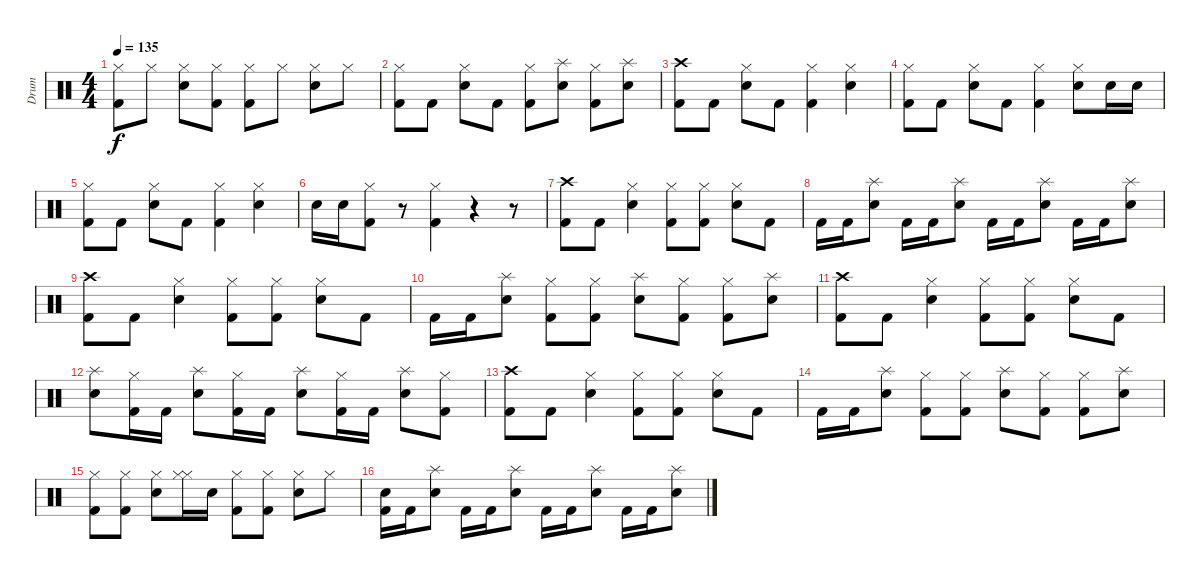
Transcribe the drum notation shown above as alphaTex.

\track ("Drum" "Drum") {instrument percussion}
\staff {score}
\articulation defaults
\ts (4 4)
\tempo 135
\clef neutral
\ks c
("Hi-Hat (closed)" "Kick (hit) 2").8{dy f} "Hi-Hat (closed)".8 ("Electric Snare (hit)" "Hi-Hat (closed)").8 ("Kick (hit) 2" "Hi-Hat (closed)").8 ("Kick (hit) 2" "Hi-Hat (closed)").8 "Hi-Hat (closed)".8 ("Electric Snare (hit)" "Hi-Hat (closed)").8 "Hi-Hat (closed)".8 |
("Hi-Hat (closed)" "Kick (hit) 2").8 "Kick (hit) 2".8 ("Hi-Hat (closed)" "Electric Snare (hit)").8 "Kick (hit) 2".8 ("Hi-Hat (closed)" "Kick (hit) 2").8 ("Splash (hit)" "Electric Snare (hit)").8 ("Hi-Hat (closed)" "Kick (hit) 2").8 ("Electric Snare (hit)" "Splash (hit)").8 |
("Crash high (hit)" "Kick (hit) 2").8 "Kick (hit) 2".8 ("Hi-Hat (closed)" "Electric Snare (hit)").8 "Kick (hit) 2".8 ("Hi-Hat (closed)" "Kick (hit) 2").4 ("Hi-Hat (closed)" "Electric Snare (hit)").4 |
("Hi-Hat (closed)" "Kick (hit) 2").8 "Kick (hit) 2".8 ("Hi-Hat (closed)" "Electric Snare (hit)").8 "Kick (hit) 2".8 ("Hi-Hat (closed)" "Kick (hit) 2").4 ("Hi-Hat (closed)" "Electric Snare (hit)").8 "Electric Snare (hit)".16 "Electric Snare (hit)".16 |
("Hi-Hat (closed)" "Kick (hit) 2").8 "Kick (hit) 2".8 ("Hi-Hat (closed)" "Electric Snare (hit)").8 "Kick (hit) 2".8 ("Hi-Hat (closed)" "Kick (hit) 2").4 ("Hi-Hat (closed)" "Electric Snare (hit)").4 |
"Electric Snare (hit)".16 "Electric Snare (hit)".16 ("Hi-Hat (closed)" "Kick (hit) 2").8 r.8 ("Hi-Hat (closed)" "Kick (hit) 2").4 r.4 r.8 |
("Crash high (hit)" "Kick (hit) 2").8 "Kick (hit) 2".8 ("Hi-Hat (closed)" "Electric Snare (hit)").4 ("Hi-Hat (closed)" "Kick (hit) 2").8 ("Hi-Hat (closed)" "Kick (hit) 2").8 ("Electric Snare (hit)" "Hi-Hat (closed)").8 "Kick (hit) 2".8 |
"Kick (hit) 2".16 "Kick (hit) 2".16 ("Splash (hit)" "Electric Snare (hit)").8 "Kick (hit) 2".16 "Kick (hit) 2".16 ("Splash (hit)" "Electric Snare (hit)").8 "Kick (hit) 2".16 "Kick (hit) 2".16 ("Splash (hit)" "Electric Snare (hit)").8 "Kick (hit) 2".16 "Kick (hit) 2".16 ("Splash (hit)" "Electric Snare (hit)").8 |
("Crash high (hit)" "Kick (hit) 2").8 "Kick (hit) 2".8 ("Hi-Hat (closed)" "Electric Snare (hit)").4 ("Hi-Hat (closed)" "Kick (hit) 2").8 ("Hi-Hat (closed)" "Kick (hit) 2").8 ("Electric Snare (hit)" "Hi-Hat (closed)").8 "Kick (hit) 2".8 |
"Kick (hit) 2".16 "Kick (hit) 2".16 ("Splash (hit)" "Electric Snare (hit)").8 ("Hi-Hat (closed)" "Kick (hit) 2").8 ("Hi-Hat (closed)" "Kick (hit) 2").8 ("Splash (hit)" "Electric Snare (hit)").8 ("Hi-Hat (closed)" "Kick (hit) 2").8 ("Hi-Hat (closed)" "Kick (hit) 2").8 ("Splash (hit)" "Electric Snare (hit)").8 |
("Crash high (hit)" "Kick (hit) 2").8 "Kick (hit) 2".8 ("Hi-Hat (closed)" "Electric Snare (hit)").4 ("Hi-Hat (closed)" "Kick (hit) 2").8 ("Hi-Hat (closed)" "Kick (hit) 2").8 ("Electric Snare (hit)" "Hi-Hat (closed)").8 "Kick (hit) 2".8 |
("Splash (hit)" "Electric Snare (hit)").8 ("Hi-Hat (closed)" "Kick (hit) 2").16 "Kick (hit) 2".16 ("Splash (hit)" "Electric Snare (hit)").8 ("Hi-Hat (closed)" "Kick (hit) 2").16 "Kick (hit) 2".16 ("Splash (hit)" "Electric Snare (hit)").8 ("Hi-Hat (closed)" "Kick (hit) 2").16 "Kick (hit) 2".16 ("Splash (hit)" "Electric Snare (hit)").8 ("Hi-Hat (closed)" "Kick (hit) 2").8 |
("Crash high (hit)" "Kick (hit) 2").8 "Kick (hit) 2".8 ("Hi-Hat (closed)" "Electric Snare (hit)").4 ("Hi-Hat (closed)" "Kick (hit) 2").8 ("Hi-Hat (closed)" "Kick (hit) 2").8 ("Electric Snare (hit)" "Hi-Hat (closed)").8 "Kick (hit) 2".8 |
"Kick (hit) 2".16 "Kick (hit) 2".16 ("Splash (hit)" "Electric Snare (hit)").8 ("Hi-Hat (closed)" "Kick (hit) 2").8 ("Hi-Hat (closed)" "Kick (hit) 2").8 ("Splash (hit)" "Electric Snare (hit)").8 ("Hi-Hat (closed)" "Kick (hit) 2").8 ("Hi-Hat (closed)" "Kick (hit) 2").8 ("Splash (hit)" "Electric Snare (hit)").8 |
("Hi-Hat (closed)" "Kick (hit) 2").8 ("Hi-Hat (closed)" "Kick (hit) 2").8 ("Hi-Hat (closed)" "Electric Snare (hit)").8 ("Hi-Hat (closed)" "Hi-Hat (closed)").16 "Electric Snare (hit)".16 ("Hi-Hat (closed)" "Kick (hit) 2").8 ("Hi-Hat (closed)" "Kick (hit) 2").8 ("Hi-Hat (closed)" "Electric Snare (hit)").8 "Hi-Hat (closed)".8 |
("Electric Snare (hit)" "Kick (hit) 2").16 "Kick (hit) 2".16 ("Splash (hit)" "Electric Snare (hit)").8 "Kick (hit) 2".16 "Kick (hit) 2".16 ("Splash (hit)" "Electric Snare (hit)").8 "Kick (hit) 2".16 "Kick (hit) 2".16 ("Splash (hit)" "Electric Snare (hit)").8 "Kick (hit) 2".16 "Kick (hit) 2".16 ("Splash (hit)" "Electric Snare (hit)").8
